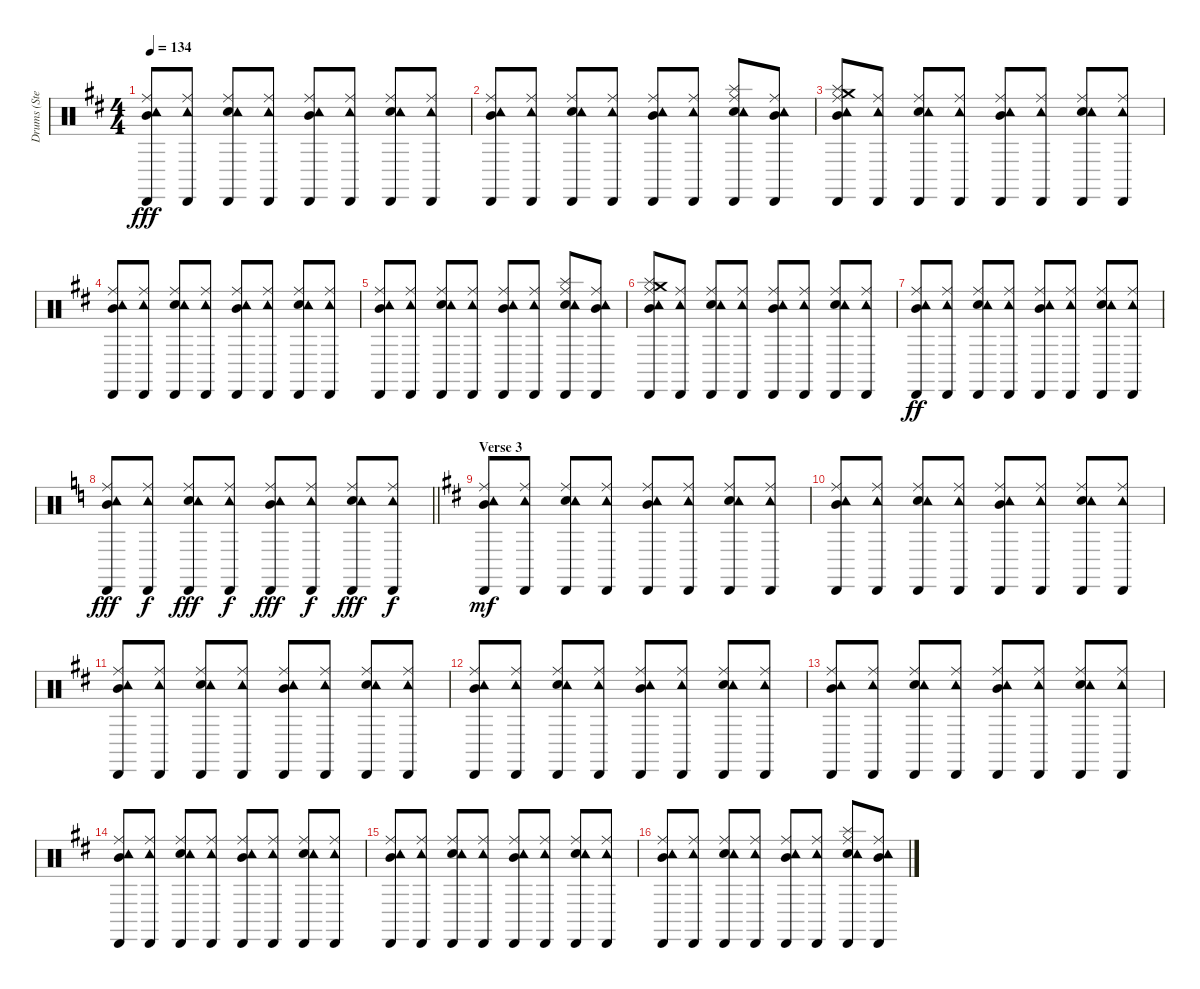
\track ("Drums (Steven)" "Drums (Ste") {instrument percussion}
\staff {score}
\articulation defaults
\ts (4 4)
\tempo 134
\clef neutral
\ks d
("Mid Tom (hit)" "Ride (middle)" "Tambourine (hit)" "Cabasa (hit)").8{dy fff} ("Ride (middle)" "Tambourine (hit)" "Cabasa (hit)").8 ("Electric Snare (hit)" "Ride (middle)" "Tambourine (hit)" "Cabasa (hit)").8 ("Ride (middle)" "Tambourine (hit)" "Cabasa (hit)").8 ("Mid Tom (hit)" "Ride (middle)" "Tambourine (hit)" "Cabasa (hit)").8 ("Ride (middle)" "Tambourine (hit)" "Cabasa (hit)").8 ("Electric Snare (hit)" "Ride (middle)" "Tambourine (hit)" "Cabasa (hit)").8 ("Ride (middle)" "Tambourine (hit)" "Cabasa (hit)").8 |
("Mid Tom (hit)" "Ride (middle)" "Tambourine (hit)" "Cabasa (hit)").8 ("Ride (middle)" "Tambourine (hit)" "Cabasa (hit)").8 ("Electric Snare (hit)" "Ride (middle)" "Tambourine (hit)" "Cabasa (hit)").8 ("Ride (middle)" "Tambourine (hit)" "Cabasa (hit)").8 ("Mid Tom (hit)" "Ride (middle)" "Tambourine (hit)" "Cabasa (hit)").8 ("Ride (middle)" "Tambourine (hit)" "Cabasa (hit)").8 ("Electric Snare (hit)" "Splash (hit)" "Ride (middle)" "Tambourine (hit)" "Cabasa (hit)").8 ("Mid Tom (hit)" "Ride (middle)" "Tambourine (hit)" "Cabasa (hit)").8 |
("Mid Tom (hit)" "Splash (hit)" "Crash medium (hit)" "Ride (middle)" "Tambourine (hit)" "Cabasa (hit)").8 ("Ride (middle)" "Tambourine (hit)" "Cabasa (hit)").8 ("Electric Snare (hit)" "Ride (middle)" "Tambourine (hit)" "Cabasa (hit)").8 ("Ride (middle)" "Tambourine (hit)" "Cabasa (hit)").8 ("Mid Tom (hit)" "Ride (middle)" "Tambourine (hit)" "Cabasa (hit)").8 ("Ride (middle)" "Tambourine (hit)" "Cabasa (hit)").8 ("Electric Snare (hit)" "Ride (middle)" "Tambourine (hit)" "Cabasa (hit)").8 ("Ride (middle)" "Tambourine (hit)" "Cabasa (hit)").8 |
("Mid Tom (hit)" "Ride (middle)" "Tambourine (hit)" "Cabasa (hit)").8 ("Ride (middle)" "Tambourine (hit)" "Cabasa (hit)").8 ("Electric Snare (hit)" "Ride (middle)" "Tambourine (hit)" "Cabasa (hit)").8 ("Ride (middle)" "Tambourine (hit)" "Cabasa (hit)").8 ("Mid Tom (hit)" "Ride (middle)" "Tambourine (hit)" "Cabasa (hit)").8 ("Ride (middle)" "Tambourine (hit)" "Cabasa (hit)").8 ("Electric Snare (hit)" "Ride (middle)" "Tambourine (hit)" "Cabasa (hit)").8 ("Ride (middle)" "Tambourine (hit)" "Cabasa (hit)").8 |
("Mid Tom (hit)" "Ride (middle)" "Tambourine (hit)" "Cabasa (hit)").8 ("Ride (middle)" "Tambourine (hit)" "Cabasa (hit)").8 ("Electric Snare (hit)" "Ride (middle)" "Tambourine (hit)" "Cabasa (hit)").8 ("Ride (middle)" "Tambourine (hit)" "Cabasa (hit)").8 ("Mid Tom (hit)" "Ride (middle)" "Tambourine (hit)" "Cabasa (hit)").8 ("Ride (middle)" "Tambourine (hit)" "Cabasa (hit)").8 ("Electric Snare (hit)" "Splash (hit)" "Ride (middle)" "Tambourine (hit)" "Cabasa (hit)").8 ("Mid Tom (hit)" "Ride (middle)" "Tambourine (hit)" "Cabasa (hit)").8 |
("Mid Tom (hit)" "Splash (hit)" "Crash medium (hit)" "Ride (middle)" "Tambourine (hit)" "Cabasa (hit)").8 ("Ride (middle)" "Tambourine (hit)" "Cabasa (hit)").8 ("Electric Snare (hit)" "Ride (middle)" "Tambourine (hit)" "Cabasa (hit)").8 ("Ride (middle)" "Tambourine (hit)" "Cabasa (hit)").8 ("Mid Tom (hit)" "Ride (middle)" "Tambourine (hit)" "Cabasa (hit)").8 ("Ride (middle)" "Tambourine (hit)" "Cabasa (hit)").8 ("Electric Snare (hit)" "Ride (middle)" "Tambourine (hit)" "Cabasa (hit)").8 ("Ride (middle)" "Tambourine (hit)" "Cabasa (hit)").8 |
("Mid Tom (hit)" "Ride (middle)" "Tambourine (hit)" "Cabasa (hit)").8{dy ff} ("Ride (middle)" "Tambourine (hit)" "Cabasa (hit)").8 ("Electric Snare (hit)" "Ride (middle)" "Tambourine (hit)" "Cabasa (hit)").8 ("Ride (middle)" "Tambourine (hit)" "Cabasa (hit)").8 ("Mid Tom (hit)" "Ride (middle)" "Tambourine (hit)" "Cabasa (hit)").8 ("Ride (middle)" "Tambourine (hit)" "Cabasa (hit)").8 ("Electric Snare (hit)" "Ride (middle)" "Tambourine (hit)" "Cabasa (hit)").8 ("Ride (middle)" "Tambourine (hit)" "Cabasa (hit)").8 |
\barLineRight lightlight
\ks c
("Mid Tom (hit)" "Ride (middle)" "Tambourine (hit)" "Cabasa (hit)").8{dy fff} ("Ride (middle)" "Tambourine (hit)" "Cabasa (hit)").8{dy f} ("Electric Snare (hit)" "Ride (middle)" "Tambourine (hit)" "Cabasa (hit)").8{dy fff} ("Ride (middle)" "Tambourine (hit)" "Cabasa (hit)").8{dy f} ("Mid Tom (hit)" "Ride (middle)" "Tambourine (hit)" "Cabasa (hit)").8{dy fff} ("Ride (middle)" "Tambourine (hit)" "Cabasa (hit)").8{dy f} ("Electric Snare (hit)" "Ride (middle)" "Tambourine (hit)" "Cabasa (hit)").8{dy fff} ("Ride (middle)" "Tambourine (hit)" "Cabasa (hit)").8{dy f} |
\section ("" "Verse 3")
\ks d
("Mid Tom (hit)" "Ride (middle)" "Tambourine (hit)" "Cabasa (hit)").8{dy mf} ("Ride (middle)" "Tambourine (hit)" "Cabasa (hit)").8 ("Electric Snare (hit)" "Ride (middle)" "Tambourine (hit)" "Cabasa (hit)").8 ("Ride (middle)" "Tambourine (hit)" "Cabasa (hit)").8 ("Mid Tom (hit)" "Ride (middle)" "Tambourine (hit)" "Cabasa (hit)").8 ("Ride (middle)" "Tambourine (hit)" "Cabasa (hit)").8 ("Electric Snare (hit)" "Ride (middle)" "Tambourine (hit)" "Cabasa (hit)").8 ("Ride (middle)" "Tambourine (hit)" "Cabasa (hit)").8 |
("Mid Tom (hit)" "Ride (middle)" "Tambourine (hit)" "Cabasa (hit)").8 ("Ride (middle)" "Tambourine (hit)" "Cabasa (hit)").8 ("Electric Snare (hit)" "Ride (middle)" "Tambourine (hit)" "Cabasa (hit)").8 ("Ride (middle)" "Tambourine (hit)" "Cabasa (hit)").8 ("Mid Tom (hit)" "Ride (middle)" "Tambourine (hit)" "Cabasa (hit)").8 ("Ride (middle)" "Tambourine (hit)" "Cabasa (hit)").8 ("Electric Snare (hit)" "Ride (middle)" "Tambourine (hit)" "Cabasa (hit)").8 ("Ride (middle)" "Tambourine (hit)" "Cabasa (hit)").8 |
("Mid Tom (hit)" "Ride (middle)" "Tambourine (hit)" "Cabasa (hit)").8 ("Ride (middle)" "Tambourine (hit)" "Cabasa (hit)").8 ("Electric Snare (hit)" "Ride (middle)" "Tambourine (hit)" "Cabasa (hit)").8 ("Ride (middle)" "Tambourine (hit)" "Cabasa (hit)").8 ("Mid Tom (hit)" "Ride (middle)" "Tambourine (hit)" "Cabasa (hit)").8 ("Ride (middle)" "Tambourine (hit)" "Cabasa (hit)").8 ("Electric Snare (hit)" "Ride (middle)" "Tambourine (hit)" "Cabasa (hit)").8 ("Ride (middle)" "Tambourine (hit)" "Cabasa (hit)").8 |
("Mid Tom (hit)" "Ride (middle)" "Tambourine (hit)" "Cabasa (hit)").8 ("Ride (middle)" "Tambourine (hit)" "Cabasa (hit)").8 ("Electric Snare (hit)" "Ride (middle)" "Tambourine (hit)" "Cabasa (hit)").8 ("Ride (middle)" "Tambourine (hit)" "Cabasa (hit)").8 ("Mid Tom (hit)" "Ride (middle)" "Tambourine (hit)" "Cabasa (hit)").8 ("Ride (middle)" "Tambourine (hit)" "Cabasa (hit)").8 ("Electric Snare (hit)" "Ride (middle)" "Tambourine (hit)" "Cabasa (hit)").8 ("Ride (middle)" "Tambourine (hit)" "Cabasa (hit)").8 |
("Mid Tom (hit)" "Ride (middle)" "Tambourine (hit)" "Cabasa (hit)").8 ("Ride (middle)" "Tambourine (hit)" "Cabasa (hit)").8 ("Electric Snare (hit)" "Ride (middle)" "Tambourine (hit)" "Cabasa (hit)").8 ("Ride (middle)" "Tambourine (hit)" "Cabasa (hit)").8 ("Mid Tom (hit)" "Ride (middle)" "Tambourine (hit)" "Cabasa (hit)").8 ("Ride (middle)" "Tambourine (hit)" "Cabasa (hit)").8 ("Electric Snare (hit)" "Ride (middle)" "Tambourine (hit)" "Cabasa (hit)").8 ("Ride (middle)" "Tambourine (hit)" "Cabasa (hit)").8 |
("Mid Tom (hit)" "Ride (middle)" "Tambourine (hit)" "Cabasa (hit)").8 ("Ride (middle)" "Tambourine (hit)" "Cabasa (hit)").8 ("Electric Snare (hit)" "Ride (middle)" "Tambourine (hit)" "Cabasa (hit)").8 ("Ride (middle)" "Tambourine (hit)" "Cabasa (hit)").8 ("Mid Tom (hit)" "Ride (middle)" "Tambourine (hit)" "Cabasa (hit)").8 ("Ride (middle)" "Tambourine (hit)" "Cabasa (hit)").8 ("Electric Snare (hit)" "Ride (middle)" "Tambourine (hit)" "Cabasa (hit)").8 ("Ride (middle)" "Tambourine (hit)" "Cabasa (hit)").8 |
("Mid Tom (hit)" "Ride (middle)" "Tambourine (hit)" "Cabasa (hit)").8 ("Ride (middle)" "Tambourine (hit)" "Cabasa (hit)").8 ("Electric Snare (hit)" "Ride (middle)" "Tambourine (hit)" "Cabasa (hit)").8 ("Ride (middle)" "Tambourine (hit)" "Cabasa (hit)").8 ("Mid Tom (hit)" "Ride (middle)" "Tambourine (hit)" "Cabasa (hit)").8 ("Ride (middle)" "Tambourine (hit)" "Cabasa (hit)").8 ("Electric Snare (hit)" "Ride (middle)" "Tambourine (hit)" "Cabasa (hit)").8 ("Ride (middle)" "Tambourine (hit)" "Cabasa (hit)").8 |
("Mid Tom (hit)" "Ride (middle)" "Tambourine (hit)" "Cabasa (hit)").8 ("Ride (middle)" "Tambourine (hit)" "Cabasa (hit)").8 ("Electric Snare (hit)" "Ride (middle)" "Tambourine (hit)" "Cabasa (hit)").8 ("Ride (middle)" "Tambourine (hit)" "Cabasa (hit)").8 ("Mid Tom (hit)" "Ride (middle)" "Tambourine (hit)" "Cabasa (hit)").8 ("Ride (middle)" "Tambourine (hit)" "Cabasa (hit)").8 ("Electric Snare (hit)" "Splash (hit)" "Ride (middle)" "Tambourine (hit)" "Cabasa (hit)").8 ("Mid Tom (hit)" "Ride (middle)" "Tambourine (hit)" "Cabasa (hit)").8
